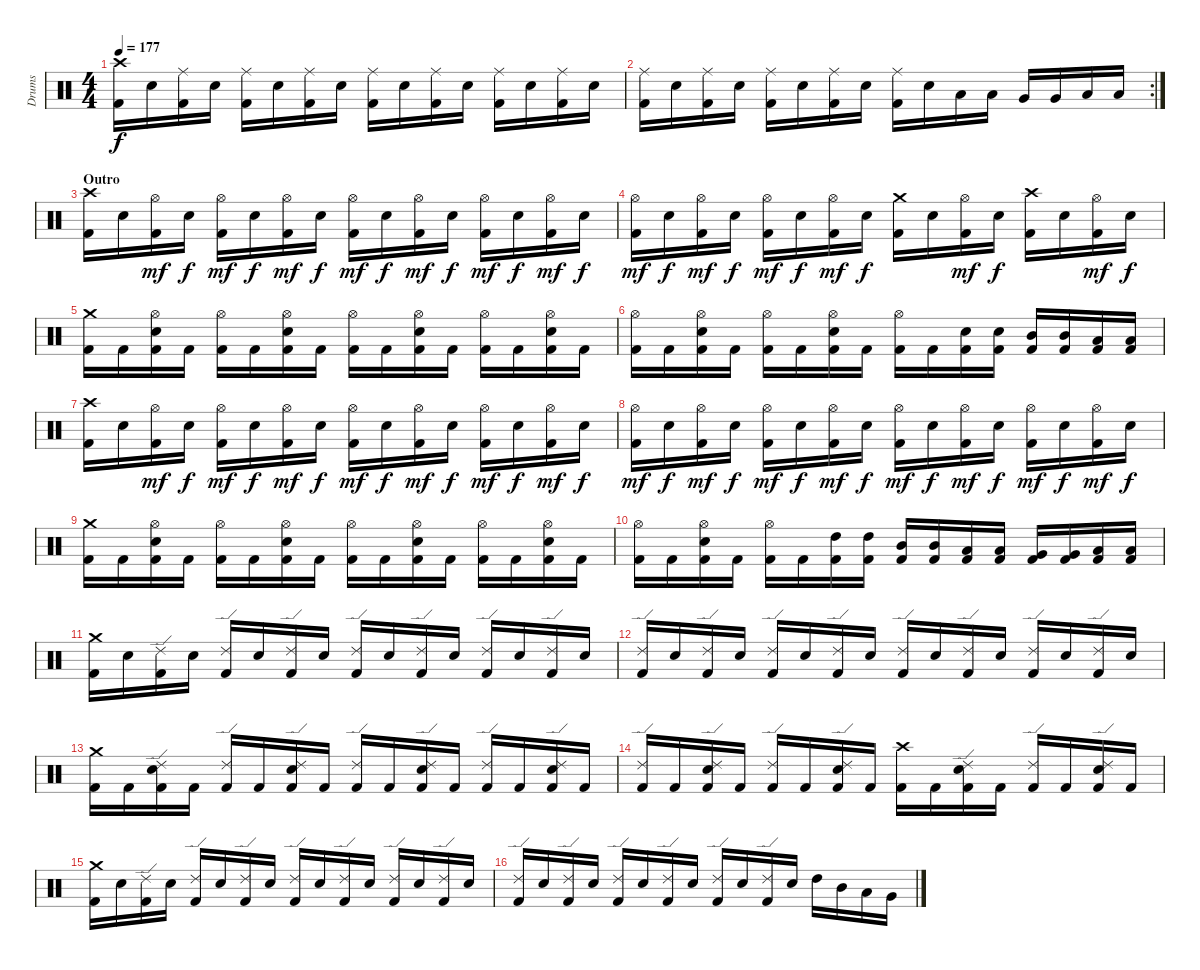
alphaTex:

\track ("Drums" "Drums") {instrument percussion}
\staff {score}
\articulation defaults
\ts (4 4)
\tempo 177
\clef neutral
\ks c
("Kick (hit) 2" "Crash high (hit)").16{dy f} "Electric Snare (hit)".16 ("Kick (hit) 2" "Ride (middle)").16 "Electric Snare (hit)".16 ("Kick (hit) 2" "Ride (middle)").16 "Electric Snare (hit)".16 ("Kick (hit) 2" "Ride (middle)").16 "Electric Snare (hit)".16 ("Kick (hit) 2" "Ride (middle)").16 "Electric Snare (hit)".16 ("Kick (hit) 2" "Ride (middle)").16 "Electric Snare (hit)".16 ("Kick (hit) 2" "Ride (middle)").16 "Electric Snare (hit)".16 ("Kick (hit) 2" "Ride (middle)").16 "Electric Snare (hit)".16 |
\rc 2
("Kick (hit) 2" "Ride (middle)").16 "Electric Snare (hit)".16 ("Kick (hit) 2" "Ride (middle)").16 "Electric Snare (hit)".16 ("Kick (hit) 2" "Ride (middle)").16 "Electric Snare (hit)".16 ("Kick (hit) 2" "Ride (middle)").16 "Electric Snare (hit)".16 ("Kick (hit) 2" "Ride (middle)").16 "Electric Snare (hit)".16 "Low Tom (hit)".16 "Low Tom (hit)".16 "Very Low Tom (hit)".16 "Very Low Tom (hit)".16 "Low Floor Tom (hit)".16 "Low Floor Tom (hit)".16 |
\section ("" "Outro")
("Kick (hit) 2" "Crash high (hit)").16 "Electric Snare (hit)".16 ("Kick (hit) 2" "Hi-Hat (open)").16{dy mf} "Electric Snare (hit)".16{dy f} ("Kick (hit) 2" "Hi-Hat (open)").16{dy mf} "Electric Snare (hit)".16{dy f} ("Kick (hit) 2" "Hi-Hat (open)").16{dy mf} "Electric Snare (hit)".16{dy f} ("Kick (hit) 2" "Hi-Hat (open)").16{dy mf} "Electric Snare (hit)".16{dy f} ("Kick (hit) 2" "Hi-Hat (open)").16{dy mf} "Electric Snare (hit)".16{dy f} ("Kick (hit) 2" "Hi-Hat (open)").16{dy mf} "Electric Snare (hit)".16{dy f} ("Kick (hit) 2" "Hi-Hat (open)").16{dy mf} "Electric Snare (hit)".16{dy f} |
("Kick (hit) 2" "Hi-Hat (open)").16{dy mf} "Electric Snare (hit)".16{dy f} ("Kick (hit) 2" "Hi-Hat (open)").16{dy mf} "Electric Snare (hit)".16{dy f} ("Kick (hit) 2" "Hi-Hat (open)").16{dy mf} "Electric Snare (hit)".16{dy f} ("Kick (hit) 2" "Hi-Hat (open)").16{dy mf} "Electric Snare (hit)".16{dy f} ("Kick (hit) 2" "Crash medium (hit)").16 "Electric Snare (hit)".16 ("Kick (hit) 2" "Hi-Hat (open)").16{dy mf} "Electric Snare (hit)".16{dy f} ("Kick (hit) 2" "Crash high (hit)").16 "Electric Snare (hit)".16 ("Kick (hit) 2" "Hi-Hat (open)").16{dy mf} "Electric Snare (hit)".16{dy f} |
("Kick (hit) 2" "Crash medium (hit)").16 "Kick (hit) 2".16 ("Kick (hit) 2" "Electric Snare (hit)" "Hi-Hat (open)").16 "Kick (hit) 2".16 ("Kick (hit) 2" "Hi-Hat (open)").16 "Kick (hit) 2".16 ("Kick (hit) 2" "Electric Snare (hit)" "Hi-Hat (open)").16 "Kick (hit) 2".16 ("Kick (hit) 2" "Hi-Hat (open)").16 "Kick (hit) 2".16 ("Kick (hit) 2" "Electric Snare (hit)" "Hi-Hat (open)").16 "Kick (hit) 2".16 ("Kick (hit) 2" "Hi-Hat (open)").16 "Kick (hit) 2".16 ("Kick (hit) 2" "Electric Snare (hit)" "Hi-Hat (open)").16 "Kick (hit) 2".16 |
("Kick (hit) 2" "Hi-Hat (open)").16 "Kick (hit) 2".16 ("Kick (hit) 2" "Electric Snare (hit)" "Hi-Hat (open)").16 "Kick (hit) 2".16 ("Kick (hit) 2" "Hi-Hat (open)").16 "Kick (hit) 2".16 ("Kick (hit) 2" "Electric Snare (hit)" "Hi-Hat (open)").16 "Kick (hit) 2".16 ("Kick (hit) 2" "Hi-Hat (open)").16 "Kick (hit) 2".16 ("Kick (hit) 2" "Electric Snare (hit)").16 ("Kick (hit) 2" "Electric Snare (hit)").16 ("Kick (hit) 2" "Mid Tom (hit)").16 ("Kick (hit) 2" "Mid Tom (hit)").16 ("Kick (hit) 2" "Low Tom (hit)").16 ("Kick (hit) 2" "Low Tom (hit)").16 |
("Kick (hit) 2" "Crash high (hit)").16 "Electric Snare (hit)".16 ("Kick (hit) 2" "Hi-Hat (open)").16{dy mf} "Electric Snare (hit)".16{dy f} ("Kick (hit) 2" "Hi-Hat (open)").16{dy mf} "Electric Snare (hit)".16{dy f} ("Kick (hit) 2" "Hi-Hat (open)").16{dy mf} "Electric Snare (hit)".16{dy f} ("Kick (hit) 2" "Hi-Hat (open)").16{dy mf} "Electric Snare (hit)".16{dy f} ("Kick (hit) 2" "Hi-Hat (open)").16{dy mf} "Electric Snare (hit)".16{dy f} ("Kick (hit) 2" "Hi-Hat (open)").16{dy mf} "Electric Snare (hit)".16{dy f} ("Kick (hit) 2" "Hi-Hat (open)").16{dy mf} "Electric Snare (hit)".16{dy f} |
("Kick (hit) 2" "Hi-Hat (open)").16{dy mf} "Electric Snare (hit)".16{dy f} ("Kick (hit) 2" "Hi-Hat (open)").16{dy mf} "Electric Snare (hit)".16{dy f} ("Kick (hit) 2" "Hi-Hat (open)").16{dy mf} "Electric Snare (hit)".16{dy f} ("Kick (hit) 2" "Hi-Hat (open)").16{dy mf} "Electric Snare (hit)".16{dy f} ("Kick (hit) 2" "Hi-Hat (open)").16{dy mf} "Electric Snare (hit)".16{dy f} ("Kick (hit) 2" "Hi-Hat (open)").16{dy mf} "Electric Snare (hit)".16{dy f} ("Kick (hit) 2" "Hi-Hat (open)").16{dy mf} "Electric Snare (hit)".16{dy f} ("Kick (hit) 2" "Hi-Hat (open)").16{dy mf} "Electric Snare (hit)".16{dy f} |
("Kick (hit) 2" "Crash medium (hit)").16 "Kick (hit) 2".16 ("Kick (hit) 2" "Electric Snare (hit)" "Hi-Hat (open)").16 "Kick (hit) 2".16 ("Kick (hit) 2" "Hi-Hat (open)").16 "Kick (hit) 2".16 ("Kick (hit) 2" "Electric Snare (hit)" "Hi-Hat (open)").16 "Kick (hit) 2".16 ("Kick (hit) 2" "Hi-Hat (open)").16 "Kick (hit) 2".16 ("Kick (hit) 2" "Electric Snare (hit)" "Hi-Hat (open)").16 "Kick (hit) 2".16 ("Kick (hit) 2" "Hi-Hat (open)").16 "Kick (hit) 2".16 ("Kick (hit) 2" "Electric Snare (hit)" "Hi-Hat (open)").16 "Kick (hit) 2".16 |
("Kick (hit) 2" "Hi-Hat (open)").16 "Kick (hit) 2".16 ("Kick (hit) 2" "Electric Snare (hit)" "Hi-Hat (open)").16 "Kick (hit) 2".16 ("Kick (hit) 2" "Hi-Hat (open)").16 "Kick (hit) 2".16 ("Kick (hit) 2" "High Tom (hit)").16 ("Kick (hit) 2" "High Tom (hit)").16 ("Kick (hit) 2" "Mid Tom (hit)").16 ("Kick (hit) 2" "Mid Tom (hit)").16 ("Kick (hit) 2" "Low Tom (hit)").16 ("Kick (hit) 2" "Low Tom (hit)").16 ("Kick (hit) 2" "Very Low Tom (hit)").16 ("Kick (hit) 2" "Very Low Tom (hit)").16 ("Kick (hit) 2" "Low Floor Tom (hit)").16 ("Kick (hit) 2" "Low Floor Tom (hit)").16 |
("Kick (hit) 2" "Crash medium (hit)").16 "Electric Snare (hit)".16 ("Kick (hit) 2" "Ride (edge) 2").16 "Electric Snare (hit)".16 ("Kick (hit) 2" "Ride (edge) 2").16 "Electric Snare (hit)".16 ("Kick (hit) 2" "Ride (edge) 2").16 "Electric Snare (hit)".16 ("Kick (hit) 2" "Ride (edge) 2").16 "Electric Snare (hit)".16 ("Kick (hit) 2" "Ride (edge) 2").16 "Electric Snare (hit)".16 ("Kick (hit) 2" "Ride (edge) 2").16 "Electric Snare (hit)".16 ("Kick (hit) 2" "Ride (edge) 2").16 "Electric Snare (hit)".16 |
("Kick (hit) 2" "Ride (edge) 2").16 "Electric Snare (hit)".16 ("Kick (hit) 2" "Ride (edge) 2").16 "Electric Snare (hit)".16 ("Kick (hit) 2" "Ride (edge) 2").16 "Electric Snare (hit)".16 ("Kick (hit) 2" "Ride (edge) 2").16 "Electric Snare (hit)".16 ("Kick (hit) 2" "Ride (edge) 2").16 "Electric Snare (hit)".16 ("Kick (hit) 2" "Ride (edge) 2").16 "Electric Snare (hit)".16 ("Kick (hit) 2" "Ride (edge) 2").16 "Electric Snare (hit)".16 ("Kick (hit) 2" "Ride (edge) 2").16 "Electric Snare (hit)".16 |
("Kick (hit) 2" "Crash medium (hit)").16 "Kick (hit) 2".16 ("Kick (hit) 2" "Electric Snare (hit)" "Ride (edge) 2").16 "Kick (hit) 2".16 ("Kick (hit) 2" "Ride (edge) 2").16 "Kick (hit) 2".16 ("Kick (hit) 2" "Electric Snare (hit)" "Ride (edge) 2").16 "Kick (hit) 2".16 ("Kick (hit) 2" "Ride (edge) 2").16 "Kick (hit) 2".16 ("Kick (hit) 2" "Electric Snare (hit)" "Ride (edge) 2").16 "Kick (hit) 2".16 ("Kick (hit) 2" "Ride (edge) 2").16 "Kick (hit) 2".16 ("Kick (hit) 2" "Electric Snare (hit)" "Ride (edge) 2").16 "Kick (hit) 2".16 |
("Kick (hit) 2" "Ride (edge) 2").16 "Kick (hit) 2".16 ("Kick (hit) 2" "Electric Snare (hit)" "Ride (edge) 2").16 "Kick (hit) 2".16 ("Kick (hit) 2" "Ride (edge) 2").16 "Kick (hit) 2".16 ("Kick (hit) 2" "Electric Snare (hit)" "Ride (edge) 2").16 "Kick (hit) 2".16 ("Kick (hit) 2" "Crash high (hit)").16 "Kick (hit) 2".16 ("Kick (hit) 2" "Electric Snare (hit)" "Ride (edge) 2").16 "Kick (hit) 2".16 ("Kick (hit) 2" "Ride (edge) 2").16 "Kick (hit) 2".16 ("Kick (hit) 2" "Electric Snare (hit)" "Ride (edge) 2").16 "Kick (hit) 2".16 |
("Kick (hit) 2" "Crash medium (hit)").16 "Electric Snare (hit)".16 ("Kick (hit) 2" "Ride (edge) 2").16 "Electric Snare (hit)".16 ("Kick (hit) 2" "Ride (edge) 2").16 "Electric Snare (hit)".16 ("Kick (hit) 2" "Ride (edge) 2").16 "Electric Snare (hit)".16 ("Kick (hit) 2" "Ride (edge) 2").16 "Electric Snare (hit)".16 ("Kick (hit) 2" "Ride (edge) 2").16 "Electric Snare (hit)".16 ("Kick (hit) 2" "Ride (edge) 2").16 "Electric Snare (hit)".16 ("Kick (hit) 2" "Ride (edge) 2").16 "Electric Snare (hit)".16 |
("Kick (hit) 2" "Ride (edge) 2").16 "Electric Snare (hit)".16 ("Kick (hit) 2" "Ride (edge) 2").16 "Electric Snare (hit)".16 ("Kick (hit) 2" "Ride (edge) 2").16 "Electric Snare (hit)".16 ("Kick (hit) 2" "Ride (edge) 2").16 "Electric Snare (hit)".16 ("Kick (hit) 2" "Ride (edge) 2").16 "Electric Snare (hit)".16 ("Kick (hit) 2" "Ride (edge) 2").16 "Electric Snare (hit)".16 "High Tom (hit)".16 "Mid Tom (hit)".16 "Low Tom (hit)".16 "Very Low Tom (hit)".16
